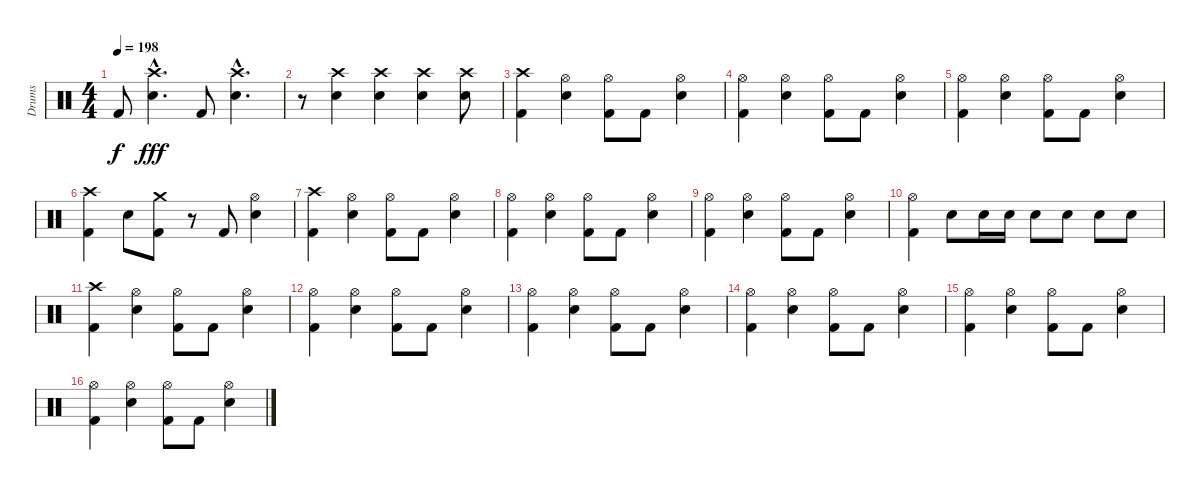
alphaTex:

\track ("Drums" "Drums") {instrument percussion}
\staff {score}
\articulation defaults
\ts (4 4)
\tempo 198
\clef neutral
\ks c "Kick (hit) 2".8{dy f}
("Crash high (hit)"{hac} "Electric Snare (hit)"{hac}).4{d dy fff} "Kick (hit) 2".8 ("Crash high (hit)"{hac} "Electric Snare (hit)"{hac}).4{d} |
r.8 ("Crash high (hit)" "Electric Snare (hit)").4 ("Crash high (hit)" "Electric Snare (hit)").4 ("Crash high (hit)" "Electric Snare (hit)").4 ("Crash high (hit)" "Electric Snare (hit)").8 |
("Crash high (hit)" "Kick (hit) 2").4 ("Hi-Hat (open)" "Electric Snare (hit)").4 ("Hi-Hat (open)" "Kick (hit) 2").8 "Kick (hit) 2".8 ("Hi-Hat (open)" "Electric Snare (hit)").4 |
("Hi-Hat (open)" "Kick (hit) 2").4 ("Hi-Hat (open)" "Electric Snare (hit)").4 ("Hi-Hat (open)" "Kick (hit) 2").8 "Kick (hit) 2".8 ("Hi-Hat (open)" "Electric Snare (hit)").4 |
("Hi-Hat (open)" "Kick (hit) 2").4 ("Hi-Hat (open)" "Electric Snare (hit)").4 ("Hi-Hat (open)" "Kick (hit) 2").8 "Kick (hit) 2".8 ("Hi-Hat (open)" "Electric Snare (hit)").4 |
("Crash high (hit)" "Kick (hit) 2").4 "Electric Snare (hit)".8 ("Crash medium (hit)" "Kick (hit) 2").8 r.8 "Kick (hit) 2".8 ("Hi-Hat (open)" "Electric Snare (hit)").4 |
("Crash high (hit)" "Kick (hit) 2").4 ("Hi-Hat (open)" "Electric Snare (hit)").4 ("Hi-Hat (open)" "Kick (hit) 2").8 "Kick (hit) 2".8 ("Hi-Hat (open)" "Electric Snare (hit)").4 |
("Hi-Hat (open)" "Kick (hit) 2").4 ("Hi-Hat (open)" "Electric Snare (hit)").4 ("Hi-Hat (open)" "Kick (hit) 2").8 "Kick (hit) 2".8 ("Hi-Hat (open)" "Electric Snare (hit)").4 |
("Hi-Hat (open)" "Kick (hit) 2").4 ("Hi-Hat (open)" "Electric Snare (hit)").4 ("Hi-Hat (open)" "Kick (hit) 2").8 "Kick (hit) 2".8 ("Hi-Hat (open)" "Electric Snare (hit)").4 |
("Hi-Hat (open)" "Kick (hit) 2").4 "Electric Snare (hit)".8 "Electric Snare (hit)".16 "Electric Snare (hit)".16 "Electric Snare (hit)".8 "Electric Snare (hit)".8 "Electric Snare (hit)".8 "Electric Snare (hit)".8 |
("Crash high (hit)" "Kick (hit) 2").4 ("Hi-Hat (open)" "Electric Snare (hit)").4 ("Hi-Hat (open)" "Kick (hit) 2").8 "Kick (hit) 2".8 ("Hi-Hat (open)" "Electric Snare (hit)").4 |
("Hi-Hat (open)" "Kick (hit) 2").4 ("Hi-Hat (open)" "Electric Snare (hit)").4 ("Hi-Hat (open)" "Kick (hit) 2").8 "Kick (hit) 2".8 ("Hi-Hat (open)" "Electric Snare (hit)").4 |
("Hi-Hat (open)" "Kick (hit) 2").4 ("Hi-Hat (open)" "Electric Snare (hit)").4 ("Hi-Hat (open)" "Kick (hit) 2").8 "Kick (hit) 2".8 ("Hi-Hat (open)" "Electric Snare (hit)").4 |
("Hi-Hat (open)" "Kick (hit) 2").4 ("Hi-Hat (open)" "Electric Snare (hit)").4 ("Hi-Hat (open)" "Kick (hit) 2").8 "Kick (hit) 2".8 ("Hi-Hat (open)" "Electric Snare (hit)").4 |
("Hi-Hat (open)" "Kick (hit) 2").4 ("Hi-Hat (open)" "Electric Snare (hit)").4 ("Hi-Hat (open)" "Kick (hit) 2").8 "Kick (hit) 2".8 ("Hi-Hat (open)" "Electric Snare (hit)").4 |
("Hi-Hat (open)" "Kick (hit) 2").4 ("Hi-Hat (open)" "Electric Snare (hit)").4 ("Hi-Hat (open)" "Kick (hit) 2").8 "Kick (hit) 2".8 ("Hi-Hat (open)" "Electric Snare (hit)").4
